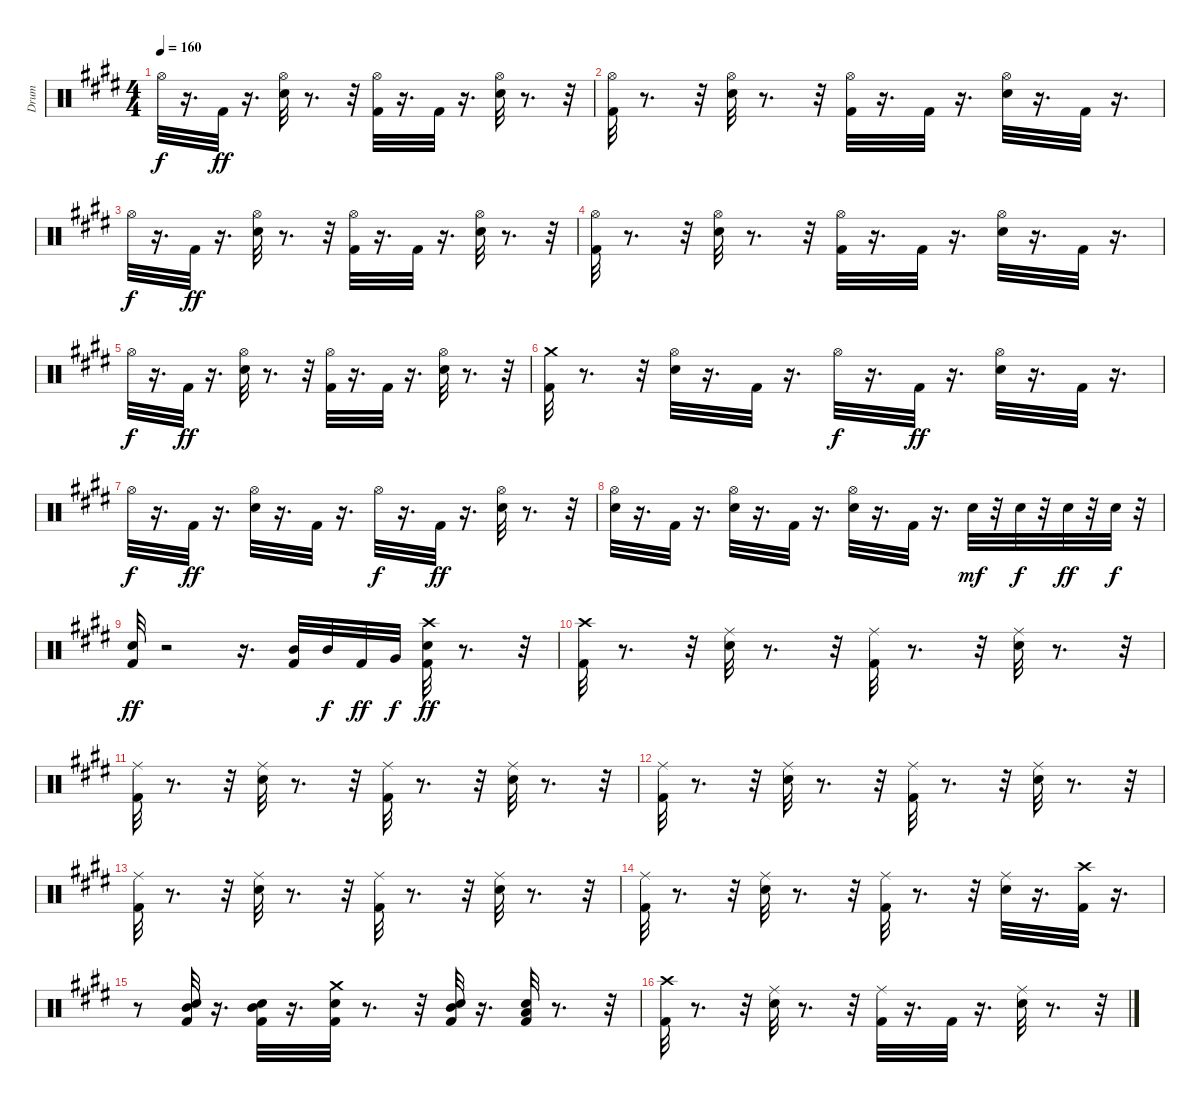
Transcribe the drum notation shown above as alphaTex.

\track ("Drum" "Drum") {instrument percussion}
\staff {score}
\articulation defaults
\ts (4 4)
\tempo 160
\clef neutral
\ks e "Hi-Hat (open)".32{dy f}
r.16{d} "Kick (hit) 2".32{dy ff} r.16{d} ("Electric Snare (hit)" "Hi-Hat (open)").32 r.8{d} r.32 ("Kick (hit) 2" "Hi-Hat (open)").32 r.16{d} "Kick (hit) 2".32 r.16{d} ("Electric Snare (hit)" "Hi-Hat (open)").32 r.8{d} r.32 |
("Kick (hit) 2" "Hi-Hat (open)").32 r.8{d} r.32 ("Electric Snare (hit)" "Hi-Hat (open)").32 r.8{d} r.32 ("Kick (hit) 2" "Hi-Hat (open)").32 r.16{d} "Kick (hit) 2".32 r.16{d} ("Electric Snare (hit)" "Hi-Hat (open)").32 r.16{d} "Kick (hit) 2".32 r.16{d} |
"Hi-Hat (open)".32{dy f} r.16{d} "Kick (hit) 2".32{dy ff} r.16{d} ("Electric Snare (hit)" "Hi-Hat (open)").32 r.8{d} r.32 ("Kick (hit) 2" "Hi-Hat (open)").32 r.16{d} "Kick (hit) 2".32 r.16{d} ("Electric Snare (hit)" "Hi-Hat (open)").32 r.8{d} r.32 |
("Kick (hit) 2" "Hi-Hat (open)").32 r.8{d} r.32 ("Electric Snare (hit)" "Hi-Hat (open)").32 r.8{d} r.32 ("Kick (hit) 2" "Hi-Hat (open)").32 r.16{d} "Kick (hit) 2".32 r.16{d} ("Electric Snare (hit)" "Hi-Hat (open)").32 r.16{d} "Kick (hit) 2".32 r.16{d} |
"Hi-Hat (open)".32{dy f} r.16{d} "Kick (hit) 2".32{dy ff} r.16{d} ("Electric Snare (hit)" "Hi-Hat (open)").32 r.8{d} r.32 ("Kick (hit) 2" "Hi-Hat (open)").32 r.16{d} "Kick (hit) 2".32 r.16{d} ("Electric Snare (hit)" "Hi-Hat (open)").32 r.8{d} r.32 |
("Crash medium (hit)" "Kick (hit) 2").32 r.8{d} r.32 ("Electric Snare (hit)" "Hi-Hat (open)").32 r.16{d} "Kick (hit) 2".32 r.16{d} "Hi-Hat (open)".32{dy f} r.16{d} "Kick (hit) 2".32{dy ff} r.16{d} ("Electric Snare (hit)" "Hi-Hat (open)").32 r.16{d} "Kick (hit) 2".32 r.16{d} |
"Hi-Hat (open)".32{dy f} r.16{d} "Kick (hit) 2".32{dy ff} r.16{d} ("Electric Snare (hit)" "Hi-Hat (open)").32 r.16{d} "Kick (hit) 2".32 r.16{d} "Hi-Hat (open)".32{dy f} r.16{d} "Kick (hit) 2".32{dy ff} r.16{d} ("Electric Snare (hit)" "Hi-Hat (open)").32 r.8{d} r.32 |
("Hi-Hat (open)" "Electric Snare (hit)").32 r.16{d} "Kick (hit) 2".32 r.16{d} ("Electric Snare (hit)" "Hi-Hat (open)").32 r.16{d} "Kick (hit) 2".32 r.16{d} ("Electric Snare (hit)" "Hi-Hat (open)").32 r.16{d} "Kick (hit) 2".32 r.16{d} "Electric Snare (hit)".32{dy mf} r.32 "Electric Snare (hit)".32{dy f} r.32 "Electric Snare (hit)".32{dy ff} r.32 "Electric Snare (hit)".32{dy f} r.32 |
("Kick (hit) 2" "Electric Snare (hit)").32{dy ff} r.2 r.16{d} ("Mid Tom (hit)" "Kick (hit) 2").32 "Mid Tom (hit)".32{dy f} "Kick (hit) 2".32{dy ff} "Very Low Tom (hit)".32{dy f} ("Crash high (hit)" "Kick (hit) 2" "Electric Snare (hit)").32{dy ff} r.8{d} r.32 |
("Crash high (hit)" "Kick (hit) 2").32 r.8{d} r.32 ("Electric Snare (hit)" "Ride (middle)").32 r.8{d} r.32 ("Kick (hit) 2" "Ride (middle)").32 r.8{d} r.32 ("Electric Snare (hit)" "Ride (middle)").32 r.8{d} r.32 |
("Kick (hit) 2" "Ride (middle)").32 r.8{d} r.32 ("Electric Snare (hit)" "Ride (middle)").32 r.8{d} r.32 ("Kick (hit) 2" "Ride (middle)").32 r.8{d} r.32 ("Electric Snare (hit)" "Ride (middle)").32 r.8{d} r.32 |
("Kick (hit) 2" "Ride (middle)").32 r.8{d} r.32 ("Electric Snare (hit)" "Ride (middle)").32 r.8{d} r.32 ("Kick (hit) 2" "Ride (middle)").32 r.8{d} r.32 ("Electric Snare (hit)" "Ride (middle)").32 r.8{d} r.32 |
("Kick (hit) 2" "Ride (middle)").32 r.8{d} r.32 ("Electric Snare (hit)" "Ride (middle)").32 r.8{d} r.32 ("Kick (hit) 2" "Ride (middle)").32 r.8{d} r.32 ("Electric Snare (hit)" "Ride (middle)").32 r.8{d} r.32 |
("Kick (hit) 2" "Ride (middle)").32 r.8{d} r.32 ("Electric Snare (hit)" "Ride (middle)").32 r.8{d} r.32 ("Kick (hit) 2" "Ride (middle)").32 r.8{d} r.32 ("Electric Snare (hit)" "Ride (middle)").32 r.16{d} ("Crash high (hit)" "Kick (hit) 2").32 r.16{d} |
r.8 ("Mid Tom (hit)" "Kick (hit) 2" "Electric Snare (hit)").32 r.16{d} ("Mid Tom (hit)" "Kick (hit) 2" "Electric Snare (hit)").32 r.16{d} ("Crash medium (hit)" "Kick (hit) 2" "Electric Snare (hit)").32 r.8{d} r.32 ("Mid Tom (hit)" "Kick (hit) 2" "Electric Snare (hit)").32 r.16{d} ("Kick (hit) 2" "Low Tom (hit)" "Electric Snare (hit)").32 r.8{d} r.32 |
("Crash high (hit)" "Kick (hit) 2").32 r.8{d} r.32 ("Electric Snare (hit)" "Ride (middle)").32 r.8{d} r.32 ("Kick (hit) 2" "Ride (middle)").32 r.16{d} "Kick (hit) 2".32 r.16{d} ("Electric Snare (hit)" "Ride (middle)").32 r.8{d} r.32
